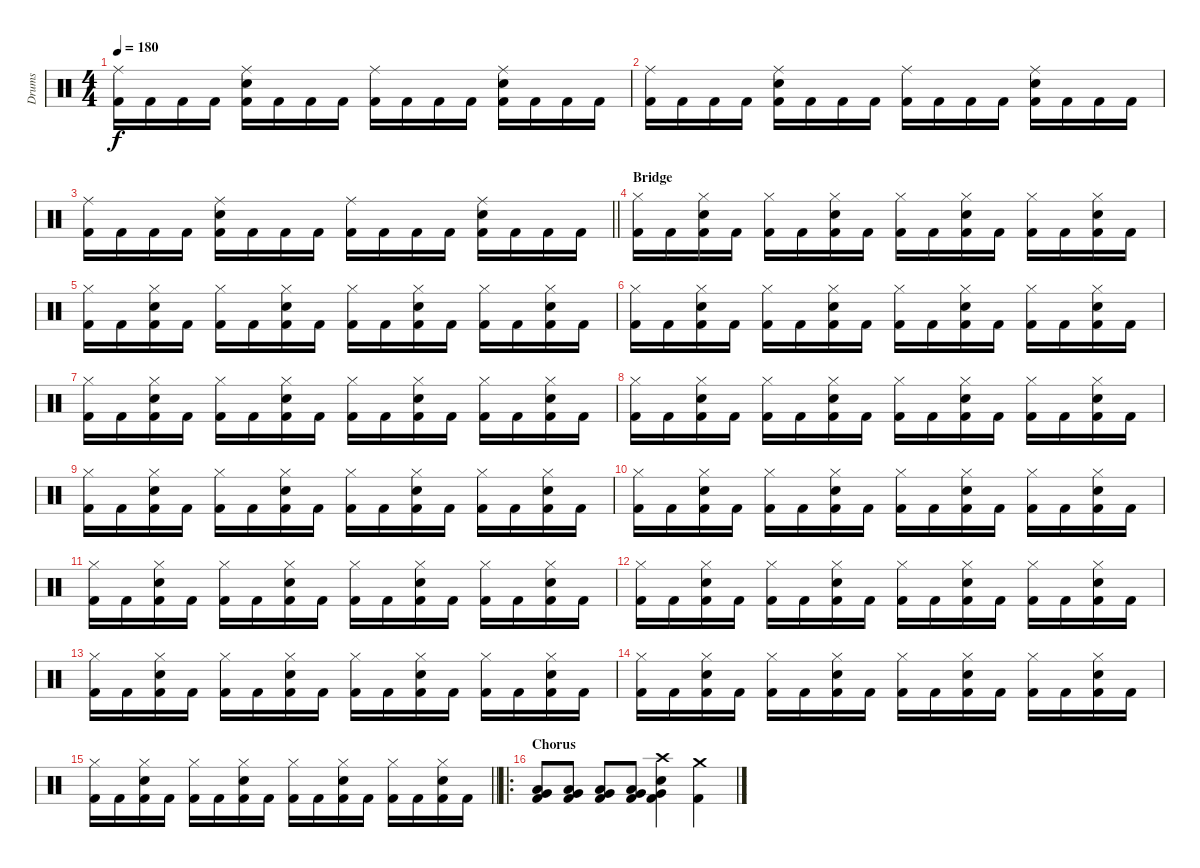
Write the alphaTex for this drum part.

\track ("Drums" "Drums") {instrument percussion}
\staff {score}
\articulation defaults
\ts (4 4)
\tempo 180
\clef neutral
\ks c
("Ride (middle)" "Kick (hit) 2").16{dy f} "Kick (hit) 2".16 "Kick (hit) 2".16 "Kick (hit) 2".16 ("Ride (middle)" "Electric Snare (hit)" "Kick (hit) 2").16 "Kick (hit) 2".16 "Kick (hit) 2".16 "Kick (hit) 2".16 ("Ride (middle)" "Kick (hit) 2").16 "Kick (hit) 2".16 "Kick (hit) 2".16 "Kick (hit) 2".16 ("Ride (middle)" "Electric Snare (hit)" "Kick (hit) 2").16 "Kick (hit) 2".16 "Kick (hit) 2".16 "Kick (hit) 2".16 |
("Ride (middle)" "Kick (hit) 2").16 "Kick (hit) 2".16 "Kick (hit) 2".16 "Kick (hit) 2".16 ("Ride (middle)" "Electric Snare (hit)" "Kick (hit) 2").16 "Kick (hit) 2".16 "Kick (hit) 2".16 "Kick (hit) 2".16 ("Ride (middle)" "Kick (hit) 2").16 "Kick (hit) 2".16 "Kick (hit) 2".16 "Kick (hit) 2".16 ("Ride (middle)" "Electric Snare (hit)" "Kick (hit) 2").16 "Kick (hit) 2".16 "Kick (hit) 2".16 "Kick (hit) 2".16 |
\barLineRight lightlight
("Ride (middle)" "Kick (hit) 2").16 "Kick (hit) 2".16 "Kick (hit) 2".16 "Kick (hit) 2".16 ("Ride (middle)" "Electric Snare (hit)" "Kick (hit) 2").16 "Kick (hit) 2".16 "Kick (hit) 2".16 "Kick (hit) 2".16 ("Ride (middle)" "Kick (hit) 2").16 "Kick (hit) 2".16 "Kick (hit) 2".16 "Kick (hit) 2".16 ("Ride (middle)" "Electric Snare (hit)" "Kick (hit) 2").16 "Kick (hit) 2".16 "Kick (hit) 2".16 "Kick (hit) 2".16 |
\section ("" "Bridge")
("Hi-Hat (closed)" "Kick (hit) 2").16 "Kick (hit) 2".16 ("Hi-Hat (closed)" "Electric Snare (hit)" "Kick (hit) 2").16 "Kick (hit) 2".16 ("Hi-Hat (closed)" "Kick (hit) 2").16 "Kick (hit) 2".16 ("Hi-Hat (closed)" "Electric Snare (hit)" "Kick (hit) 2").16 "Kick (hit) 2".16 ("Hi-Hat (closed)" "Kick (hit) 2").16 "Kick (hit) 2".16 ("Hi-Hat (closed)" "Electric Snare (hit)" "Kick (hit) 2").16 "Kick (hit) 2".16 ("Hi-Hat (closed)" "Kick (hit) 2").16 "Kick (hit) 2".16 ("Hi-Hat (closed)" "Electric Snare (hit)" "Kick (hit) 2").16 "Kick (hit) 2".16 |
("Hi-Hat (closed)" "Kick (hit) 2").16 "Kick (hit) 2".16 ("Hi-Hat (closed)" "Electric Snare (hit)" "Kick (hit) 2").16 "Kick (hit) 2".16 ("Hi-Hat (closed)" "Kick (hit) 2").16 "Kick (hit) 2".16 ("Hi-Hat (closed)" "Electric Snare (hit)" "Kick (hit) 2").16 "Kick (hit) 2".16 ("Hi-Hat (closed)" "Kick (hit) 2").16 "Kick (hit) 2".16 ("Hi-Hat (closed)" "Electric Snare (hit)" "Kick (hit) 2").16 "Kick (hit) 2".16 ("Hi-Hat (closed)" "Kick (hit) 2").16 "Kick (hit) 2".16 ("Hi-Hat (closed)" "Electric Snare (hit)" "Kick (hit) 2").16 "Kick (hit) 2".16 |
("Hi-Hat (closed)" "Kick (hit) 2").16 "Kick (hit) 2".16 ("Hi-Hat (closed)" "Electric Snare (hit)" "Kick (hit) 2").16 "Kick (hit) 2".16 ("Hi-Hat (closed)" "Kick (hit) 2").16 "Kick (hit) 2".16 ("Hi-Hat (closed)" "Electric Snare (hit)" "Kick (hit) 2").16 "Kick (hit) 2".16 ("Hi-Hat (closed)" "Kick (hit) 2").16 "Kick (hit) 2".16 ("Hi-Hat (closed)" "Electric Snare (hit)" "Kick (hit) 2").16 "Kick (hit) 2".16 ("Hi-Hat (closed)" "Kick (hit) 2").16 "Kick (hit) 2".16 ("Hi-Hat (closed)" "Electric Snare (hit)" "Kick (hit) 2").16 "Kick (hit) 2".16 |
("Hi-Hat (closed)" "Kick (hit) 2").16 "Kick (hit) 2".16 ("Hi-Hat (closed)" "Electric Snare (hit)" "Kick (hit) 2").16 "Kick (hit) 2".16 ("Hi-Hat (closed)" "Kick (hit) 2").16 "Kick (hit) 2".16 ("Hi-Hat (closed)" "Electric Snare (hit)" "Kick (hit) 2").16 "Kick (hit) 2".16 ("Hi-Hat (closed)" "Kick (hit) 2").16 "Kick (hit) 2".16 ("Hi-Hat (closed)" "Electric Snare (hit)" "Kick (hit) 2").16 "Kick (hit) 2".16 ("Hi-Hat (closed)" "Kick (hit) 2").16 "Kick (hit) 2".16 ("Hi-Hat (closed)" "Electric Snare (hit)" "Kick (hit) 2").16 "Kick (hit) 2".16 |
("Hi-Hat (closed)" "Kick (hit) 2").16 "Kick (hit) 2".16 ("Hi-Hat (closed)" "Electric Snare (hit)" "Kick (hit) 2").16 "Kick (hit) 2".16 ("Hi-Hat (closed)" "Kick (hit) 2").16 "Kick (hit) 2".16 ("Hi-Hat (closed)" "Electric Snare (hit)" "Kick (hit) 2").16 "Kick (hit) 2".16 ("Hi-Hat (closed)" "Kick (hit) 2").16 "Kick (hit) 2".16 ("Hi-Hat (closed)" "Electric Snare (hit)" "Kick (hit) 2").16 "Kick (hit) 2".16 ("Hi-Hat (closed)" "Kick (hit) 2").16 "Kick (hit) 2".16 ("Hi-Hat (closed)" "Electric Snare (hit)" "Kick (hit) 2").16 "Kick (hit) 2".16 |
("Hi-Hat (closed)" "Kick (hit) 2").16 "Kick (hit) 2".16 ("Hi-Hat (closed)" "Electric Snare (hit)" "Kick (hit) 2").16 "Kick (hit) 2".16 ("Hi-Hat (closed)" "Kick (hit) 2").16 "Kick (hit) 2".16 ("Hi-Hat (closed)" "Electric Snare (hit)" "Kick (hit) 2").16 "Kick (hit) 2".16 ("Hi-Hat (closed)" "Kick (hit) 2").16 "Kick (hit) 2".16 ("Hi-Hat (closed)" "Electric Snare (hit)" "Kick (hit) 2").16 "Kick (hit) 2".16 ("Hi-Hat (closed)" "Kick (hit) 2").16 "Kick (hit) 2".16 ("Hi-Hat (closed)" "Electric Snare (hit)" "Kick (hit) 2").16 "Kick (hit) 2".16 |
("Hi-Hat (closed)" "Kick (hit) 2").16 "Kick (hit) 2".16 ("Hi-Hat (closed)" "Electric Snare (hit)" "Kick (hit) 2").16 "Kick (hit) 2".16 ("Hi-Hat (closed)" "Kick (hit) 2").16 "Kick (hit) 2".16 ("Hi-Hat (closed)" "Electric Snare (hit)" "Kick (hit) 2").16 "Kick (hit) 2".16 ("Hi-Hat (closed)" "Kick (hit) 2").16 "Kick (hit) 2".16 ("Hi-Hat (closed)" "Electric Snare (hit)" "Kick (hit) 2").16 "Kick (hit) 2".16 ("Hi-Hat (closed)" "Kick (hit) 2").16 "Kick (hit) 2".16 ("Hi-Hat (closed)" "Electric Snare (hit)" "Kick (hit) 2").16 "Kick (hit) 2".16 |
("Hi-Hat (closed)" "Kick (hit) 2").16 "Kick (hit) 2".16 ("Hi-Hat (closed)" "Electric Snare (hit)" "Kick (hit) 2").16 "Kick (hit) 2".16 ("Hi-Hat (closed)" "Kick (hit) 2").16 "Kick (hit) 2".16 ("Hi-Hat (closed)" "Electric Snare (hit)" "Kick (hit) 2").16 "Kick (hit) 2".16 ("Hi-Hat (closed)" "Kick (hit) 2").16 "Kick (hit) 2".16 ("Hi-Hat (closed)" "Electric Snare (hit)" "Kick (hit) 2").16 "Kick (hit) 2".16 ("Hi-Hat (closed)" "Kick (hit) 2").16 "Kick (hit) 2".16 ("Hi-Hat (closed)" "Electric Snare (hit)" "Kick (hit) 2").16 "Kick (hit) 2".16 |
("Hi-Hat (closed)" "Kick (hit) 2").16 "Kick (hit) 2".16 ("Hi-Hat (closed)" "Electric Snare (hit)" "Kick (hit) 2").16 "Kick (hit) 2".16 ("Hi-Hat (closed)" "Kick (hit) 2").16 "Kick (hit) 2".16 ("Hi-Hat (closed)" "Electric Snare (hit)" "Kick (hit) 2").16 "Kick (hit) 2".16 ("Hi-Hat (closed)" "Kick (hit) 2").16 "Kick (hit) 2".16 ("Hi-Hat (closed)" "Electric Snare (hit)" "Kick (hit) 2").16 "Kick (hit) 2".16 ("Hi-Hat (closed)" "Kick (hit) 2").16 "Kick (hit) 2".16 ("Hi-Hat (closed)" "Electric Snare (hit)" "Kick (hit) 2").16 "Kick (hit) 2".16 |
("Hi-Hat (closed)" "Kick (hit) 2").16 "Kick (hit) 2".16 ("Hi-Hat (closed)" "Electric Snare (hit)" "Kick (hit) 2").16 "Kick (hit) 2".16 ("Hi-Hat (closed)" "Kick (hit) 2").16 "Kick (hit) 2".16 ("Hi-Hat (closed)" "Electric Snare (hit)" "Kick (hit) 2").16 "Kick (hit) 2".16 ("Hi-Hat (closed)" "Kick (hit) 2").16 "Kick (hit) 2".16 ("Hi-Hat (closed)" "Electric Snare (hit)" "Kick (hit) 2").16 "Kick (hit) 2".16 ("Hi-Hat (closed)" "Kick (hit) 2").16 "Kick (hit) 2".16 ("Hi-Hat (closed)" "Electric Snare (hit)" "Kick (hit) 2").16 "Kick (hit) 2".16 |
("Hi-Hat (closed)" "Kick (hit) 2").16 "Kick (hit) 2".16 ("Hi-Hat (closed)" "Electric Snare (hit)" "Kick (hit) 2").16 "Kick (hit) 2".16 ("Hi-Hat (closed)" "Kick (hit) 2").16 "Kick (hit) 2".16 ("Hi-Hat (closed)" "Electric Snare (hit)" "Kick (hit) 2").16 "Kick (hit) 2".16 ("Hi-Hat (closed)" "Kick (hit) 2").16 "Kick (hit) 2".16 ("Hi-Hat (closed)" "Electric Snare (hit)" "Kick (hit) 2").16 "Kick (hit) 2".16 ("Hi-Hat (closed)" "Kick (hit) 2").16 "Kick (hit) 2".16 ("Hi-Hat (closed)" "Electric Snare (hit)" "Kick (hit) 2").16 "Kick (hit) 2".16 |
\barLineRight lightlight
("Hi-Hat (closed)" "Kick (hit) 2").16 "Kick (hit) 2".16 ("Hi-Hat (closed)" "Electric Snare (hit)" "Kick (hit) 2").16 "Kick (hit) 2".16 ("Hi-Hat (closed)" "Kick (hit) 2").16 "Kick (hit) 2".16 ("Hi-Hat (closed)" "Electric Snare (hit)" "Kick (hit) 2").16 "Kick (hit) 2".16 ("Hi-Hat (closed)" "Kick (hit) 2").16 "Kick (hit) 2".16 ("Hi-Hat (closed)" "Electric Snare (hit)" "Kick (hit) 2").16 "Kick (hit) 2".16 ("Hi-Hat (closed)" "Kick (hit) 2").16 "Kick (hit) 2".16 ("Hi-Hat (closed)" "Electric Snare (hit)" "Kick (hit) 2").16 "Kick (hit) 2".16 |
\ro
\section ("" "Chorus")
("Low Floor Tom (hit)" "Very Low Tom (hit)" "Kick (hit) 2").8 ("Low Floor Tom (hit)" "Very Low Tom (hit)" "Kick (hit) 2").8 ("Low Floor Tom (hit)" "Very Low Tom (hit)" "Kick (hit) 2").8 ("Low Floor Tom (hit)" "Very Low Tom (hit)" "Kick (hit) 2").8 ("Crash high (hit)" "Electric Snare (hit)" "Very Low Tom (hit)" "Kick (hit) 2").4 ("Crash medium (hit)" "Kick (hit) 2").4
